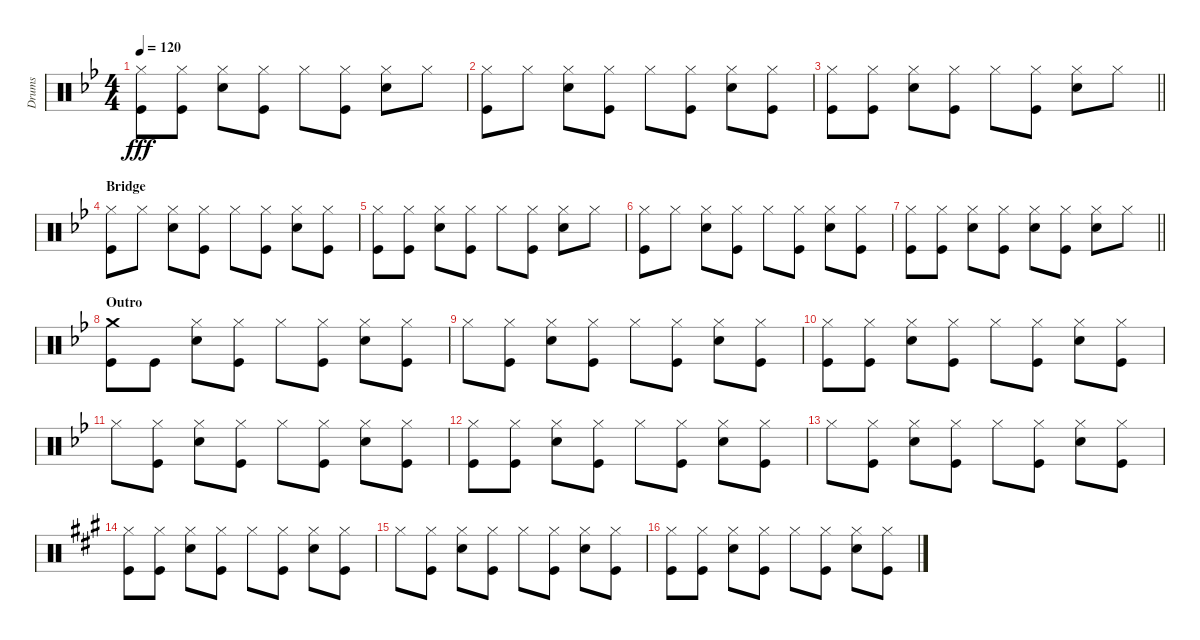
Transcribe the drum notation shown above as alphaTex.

\track ("Drums" "Drums") {instrument percussion}
\staff {score}
\articulation defaults
\ts (4 4)
\tempo 120
\clef neutral
\ks bb
("Hi-Hat (closed)" "Kick (hit)").8{dy fff} ("Hi-Hat (closed)" "Kick (hit)").8 ("Hi-Hat (closed)" "Snare (hit) 2").8 ("Hi-Hat (closed)" "Kick (hit)").8 "Hi-Hat (closed)".8 ("Hi-Hat (closed)" "Kick (hit)").8 ("Hi-Hat (closed)" "Snare (hit) 2").8 "Hi-Hat (closed)".8 |
("Hi-Hat (closed)" "Kick (hit)").8 "Hi-Hat (closed)".8 ("Hi-Hat (closed)" "Snare (hit) 2").8 ("Hi-Hat (closed)" "Kick (hit)").8 "Hi-Hat (closed)".8 ("Hi-Hat (closed)" "Kick (hit)").8 ("Hi-Hat (closed)" "Snare (hit) 2").8 ("Hi-Hat (closed)" "Kick (hit)").8 |
\barLineRight lightlight
("Hi-Hat (closed)" "Kick (hit)").8 ("Hi-Hat (closed)" "Kick (hit)").8 ("Hi-Hat (closed)" "Snare (hit) 2").8 ("Hi-Hat (closed)" "Kick (hit)").8 "Hi-Hat (closed)".8 ("Hi-Hat (closed)" "Kick (hit)").8 ("Hi-Hat (closed)" "Snare (hit) 2").8 "Hi-Hat (closed)".8 |
\section ("" "Bridge")
("Hi-Hat (closed)" "Kick (hit)").8 "Hi-Hat (closed)".8 ("Hi-Hat (closed)" "Snare (hit) 2").8 ("Hi-Hat (closed)" "Kick (hit)").8 "Hi-Hat (closed)".8 ("Hi-Hat (closed)" "Kick (hit)").8 ("Hi-Hat (closed)" "Snare (hit) 2").8 ("Hi-Hat (closed)" "Kick (hit)").8 |
("Hi-Hat (closed)" "Kick (hit)").8 ("Hi-Hat (closed)" "Kick (hit)").8 ("Hi-Hat (closed)" "Snare (hit) 2").8 ("Hi-Hat (closed)" "Kick (hit)").8 "Hi-Hat (closed)".8 ("Hi-Hat (closed)" "Kick (hit)").8 ("Hi-Hat (closed)" "Snare (hit) 2").8 "Hi-Hat (closed)".8 |
("Hi-Hat (closed)" "Kick (hit)").8 "Hi-Hat (closed)".8 ("Hi-Hat (closed)" "Snare (hit) 2").8 ("Hi-Hat (closed)" "Kick (hit)").8 "Hi-Hat (closed)".8 ("Hi-Hat (closed)" "Kick (hit)").8 ("Hi-Hat (closed)" "Snare (hit) 2").8 ("Hi-Hat (closed)" "Kick (hit)").8 |
\barLineRight lightlight
("Hi-Hat (closed)" "Kick (hit)").8 ("Hi-Hat (closed)" "Kick (hit)").8 ("Hi-Hat (closed)" "Snare (hit) 2").8 ("Hi-Hat (closed)" "Kick (hit)").8 ("Hi-Hat (closed)" "Snare (hit) 2").8 ("Hi-Hat (closed)" "Kick (hit)").8 ("Hi-Hat (closed)" "Snare (hit) 2").8 "Hi-Hat (closed)".8 |
\section ("" "Outro")
("Crash medium (hit)" "Kick (hit)").8 "Kick (hit)".8 ("Hi-Hat (closed)" "Snare (hit) 2").8 ("Hi-Hat (closed)" "Kick (hit)").8 "Hi-Hat (closed)".8 ("Hi-Hat (closed)" "Kick (hit)").8 ("Hi-Hat (closed)" "Snare (hit) 2").8 ("Hi-Hat (closed)" "Kick (hit)").8 |
"Hi-Hat (closed)".8 ("Hi-Hat (closed)" "Kick (hit)").8 ("Hi-Hat (closed)" "Snare (hit) 2").8 ("Hi-Hat (closed)" "Kick (hit)").8 "Hi-Hat (closed)".8 ("Hi-Hat (closed)" "Kick (hit)").8 ("Hi-Hat (closed)" "Snare (hit) 2").8 ("Hi-Hat (closed)" "Kick (hit)").8 |
("Hi-Hat (closed)" "Kick (hit)").8 ("Hi-Hat (closed)" "Kick (hit)").8 ("Hi-Hat (closed)" "Snare (hit) 2").8 ("Hi-Hat (closed)" "Kick (hit)").8 "Hi-Hat (closed)".8 ("Hi-Hat (closed)" "Kick (hit)").8 ("Hi-Hat (closed)" "Snare (hit) 2").8 ("Hi-Hat (closed)" "Kick (hit)").8 |
"Hi-Hat (closed)".8 ("Hi-Hat (closed)" "Kick (hit)").8 ("Hi-Hat (closed)" "Snare (hit) 2").8 ("Hi-Hat (closed)" "Kick (hit)").8 "Hi-Hat (closed)".8 ("Hi-Hat (closed)" "Kick (hit)").8 ("Hi-Hat (closed)" "Snare (hit) 2").8 ("Hi-Hat (closed)" "Kick (hit)").8 |
("Hi-Hat (closed)" "Kick (hit)").8 ("Hi-Hat (closed)" "Kick (hit)").8 ("Hi-Hat (closed)" "Snare (hit) 2").8 ("Hi-Hat (closed)" "Kick (hit)").8 "Hi-Hat (closed)".8 ("Hi-Hat (closed)" "Kick (hit)").8 ("Hi-Hat (closed)" "Snare (hit) 2").8 ("Hi-Hat (closed)" "Kick (hit)").8 |
"Hi-Hat (closed)".8 ("Hi-Hat (closed)" "Kick (hit)").8 ("Hi-Hat (closed)" "Snare (hit) 2").8 ("Hi-Hat (closed)" "Kick (hit)").8 "Hi-Hat (closed)".8 ("Hi-Hat (closed)" "Kick (hit)").8 ("Hi-Hat (closed)" "Snare (hit) 2").8 ("Hi-Hat (closed)" "Kick (hit)").8 |
\ks a
("Hi-Hat (closed)" "Kick (hit)").8 ("Hi-Hat (closed)" "Kick (hit)").8 ("Hi-Hat (closed)" "Snare (hit) 2").8 ("Hi-Hat (closed)" "Kick (hit)").8 "Hi-Hat (closed)".8 ("Hi-Hat (closed)" "Kick (hit)").8 ("Hi-Hat (closed)" "Snare (hit) 2").8 ("Hi-Hat (closed)" "Kick (hit)").8 |
"Hi-Hat (closed)".8 ("Hi-Hat (closed)" "Kick (hit)").8 ("Hi-Hat (closed)" "Snare (hit) 2").8 ("Hi-Hat (closed)" "Kick (hit)").8 "Hi-Hat (closed)".8 ("Hi-Hat (closed)" "Kick (hit)").8 ("Hi-Hat (closed)" "Snare (hit) 2").8 ("Hi-Hat (closed)" "Kick (hit)").8 |
("Hi-Hat (closed)" "Kick (hit)").8 ("Hi-Hat (closed)" "Kick (hit)").8 ("Hi-Hat (closed)" "Snare (hit) 2").8 ("Hi-Hat (closed)" "Kick (hit)").8 "Hi-Hat (closed)".8 ("Hi-Hat (closed)" "Kick (hit)").8 ("Hi-Hat (closed)" "Snare (hit) 2").8 ("Hi-Hat (closed)" "Kick (hit)").8
